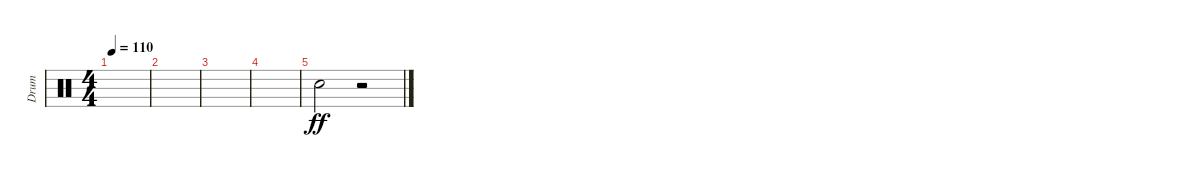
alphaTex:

\track ("Drum" "Drum") {instrument percussion}
\staff {score}
\articulation defaults
\ts (4 4)
\tempo 110
\clef neutral
\ks c
|
|
|
|
"Hand Clap (hit)".2{dy ff} r.2
